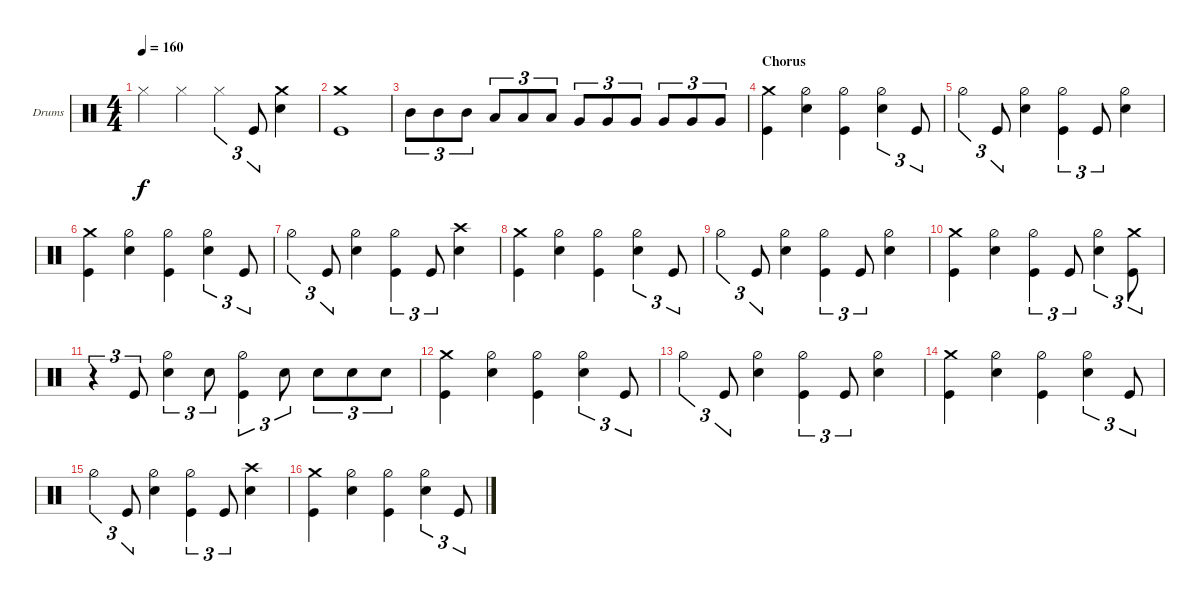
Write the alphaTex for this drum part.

\bracketExtendMode groupsimilarinstruments
\firstSystemTrackNameOrientation horizontal
\otherSystemsTrackNameOrientation horizontal
\track ("Drumkit" "Drums") {instrument percussion}
\staff {score}
\articulation defaults
\ts (4 4)
\tempo 160
\clef neutral
\ks c "Hi-Hat (closed)".4{dy f} "Hi-Hat (closed)".4 "Hi-Hat (closed)".4{tu (3 2)} "Kick (hit)".8{tu (3 2)}
("Crash medium (hit)" "Snare (hit) 2").4 |
("Crash medium (hit)" "Kick (hit)").1 |
"Mid Tom (hit)".8{tu (3 2)} "Mid Tom (hit)".8{tu (3 2)} "Mid Tom (hit)".8{tu (3 2)} "Low Tom (hit)".8{tu (3 2)} "Low Tom (hit)".8{tu (3 2)} "Low Tom (hit)".8{tu (3 2)} "Very Low Tom (hit)".8{tu (3 2)} "Very Low Tom (hit)".8{tu (3 2)} "Very Low Tom (hit)".8{tu (3 2)} "Very Low Tom (hit)".8{tu (3 2)} "Very Low Tom (hit)".8{tu (3 2)} "Very Low Tom (hit)".8{tu (3 2)} |
\section ("" "Chorus")
("Kick (hit)" "Crash medium (hit)").4 ("Snare (hit) 2" "Hi-Hat (half)").4 ("Kick (hit)" "Hi-Hat (half)").4 ("Snare (hit) 2" "Hi-Hat (half)").4{tu (3 2)} "Kick (hit)".8{tu (3 2)} |
"Hi-Hat (half)".4{tu (3 2)} "Kick (hit)".8{tu (3 2)} ("Snare (hit) 2" "Hi-Hat (half)").4 ("Kick (hit)" "Hi-Hat (half)").4{tu (3 2)} "Kick (hit)".8{tu (3 2)} ("Snare (hit) 2" "Hi-Hat (half)").4 |
("Kick (hit)" "Crash medium (hit)").4 ("Snare (hit) 2" "Hi-Hat (half)").4 ("Kick (hit)" "Hi-Hat (half)").4 ("Snare (hit) 2" "Hi-Hat (half)").4{tu (3 2)} "Kick (hit)".8{tu (3 2)} |
"Hi-Hat (half)".4{tu (3 2)} "Kick (hit)".8{tu (3 2)} ("Snare (hit) 2" "Hi-Hat (half)").4 ("Kick (hit)" "Hi-Hat (half)").4{tu (3 2)} "Kick (hit)".8{tu (3 2)} ("Snare (hit) 2" "Crash high (hit)").4 |
("Kick (hit)" "Crash medium (hit)").4 ("Snare (hit) 2" "Hi-Hat (half)").4 ("Kick (hit)" "Hi-Hat (half)").4 ("Snare (hit) 2" "Hi-Hat (half)").4{tu (3 2)} "Kick (hit)".8{tu (3 2)} |
"Hi-Hat (half)".4{tu (3 2)} "Kick (hit)".8{tu (3 2)} ("Snare (hit) 2" "Hi-Hat (half)").4 ("Kick (hit)" "Hi-Hat (half)").4{tu (3 2)} "Kick (hit)".8{tu (3 2)} ("Snare (hit) 2" "Hi-Hat (half)").4 |
("Kick (hit)" "Crash medium (hit)").4 ("Snare (hit) 2" "Hi-Hat (half)").4 ("Kick (hit)" "Hi-Hat (half)").4{tu (3 2)} "Kick (hit)".8{tu (3 2)} ("Snare (hit) 2" "Hi-Hat (half)").4{tu (3 2)} ("Kick (hit)" "Crash medium (hit)").8{tu (3 2)} |
r.4{tu (3 2)} "Kick (hit)".8{tu (3 2)} ("Snare (hit) 2" "Hi-Hat (half)").4{tu (3 2)} "Snare (hit) 2".8{tu (3 2)} ("Kick (hit)" "Hi-Hat (half)").4{tu (3 2)} "Snare (hit) 2".8{tu (3 2)} "Snare (hit) 2".8{tu (3 2)} "Snare (hit) 2".8{tu (3 2)} "Snare (hit) 2".8{tu (3 2)} |
("Kick (hit)" "Crash medium (hit)").4 ("Snare (hit) 2" "Hi-Hat (half)").4 ("Kick (hit)" "Hi-Hat (half)").4 ("Snare (hit) 2" "Hi-Hat (half)").4{tu (3 2)} "Kick (hit)".8{tu (3 2)} |
"Hi-Hat (half)".4{tu (3 2)} "Kick (hit)".8{tu (3 2)} ("Snare (hit) 2" "Hi-Hat (half)").4 ("Kick (hit)" "Hi-Hat (half)").4{tu (3 2)} "Kick (hit)".8{tu (3 2)} ("Snare (hit) 2" "Hi-Hat (half)").4 |
("Kick (hit)" "Crash medium (hit)").4 ("Snare (hit) 2" "Hi-Hat (half)").4 ("Kick (hit)" "Hi-Hat (half)").4 ("Snare (hit) 2" "Hi-Hat (half)").4{tu (3 2)} "Kick (hit)".8{tu (3 2)} |
"Hi-Hat (half)".4{tu (3 2)} "Kick (hit)".8{tu (3 2)} ("Snare (hit) 2" "Hi-Hat (half)").4 ("Kick (hit)" "Hi-Hat (half)").4{tu (3 2)} "Kick (hit)".8{tu (3 2)} ("Snare (hit) 2" "Crash high (hit)").4 |
("Kick (hit)" "Crash medium (hit)").4 ("Snare (hit) 2" "Hi-Hat (half)").4 ("Kick (hit)" "Hi-Hat (half)").4 ("Snare (hit) 2" "Hi-Hat (half)").4{tu (3 2)} "Kick (hit)".8{tu (3 2)}
